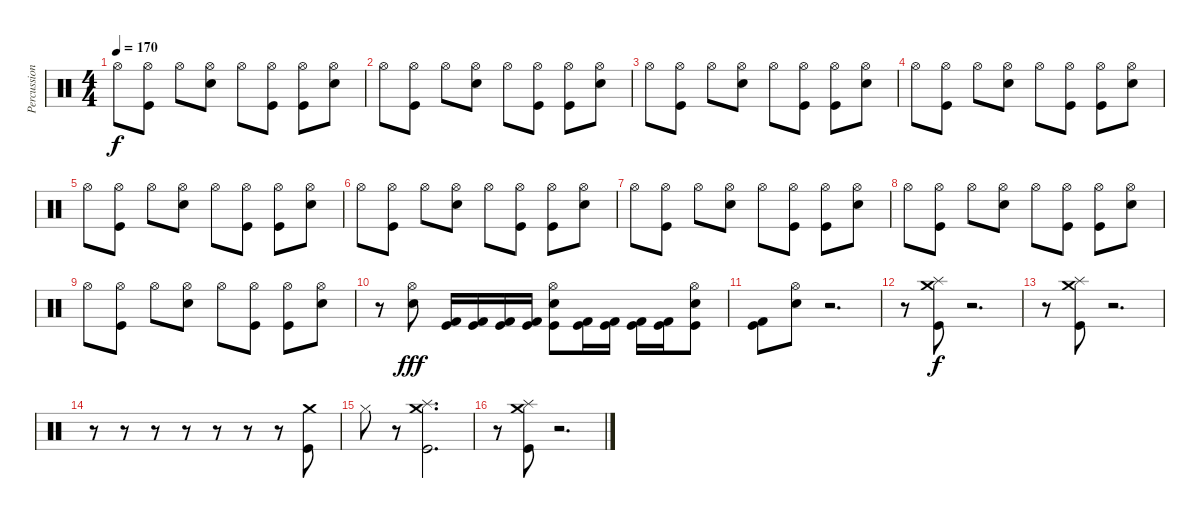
\track ("Percussion" "Percussion") {instrument percussion}
\staff {score}
\articulation defaults
\ts (4 4)
\tempo 170
\clef neutral
\ks c "Hi-Hat (open)".8{dy f}
("Hi-Hat (open)" "Kick (hit)").8 "Hi-Hat (open)".8 ("Hi-Hat (open)" "Electric Snare (hit)").8 "Hi-Hat (open)".8 ("Hi-Hat (open)" "Kick (hit)").8 ("Hi-Hat (open)" "Kick (hit)").8 ("Hi-Hat (open)" "Electric Snare (hit)").8 |
"Hi-Hat (open)".8 ("Hi-Hat (open)" "Kick (hit)").8 "Hi-Hat (open)".8 ("Hi-Hat (open)" "Electric Snare (hit)").8 "Hi-Hat (open)".8 ("Hi-Hat (open)" "Kick (hit)").8 ("Hi-Hat (open)" "Kick (hit)").8 ("Hi-Hat (open)" "Electric Snare (hit)").8 |
"Hi-Hat (open)".8 ("Hi-Hat (open)" "Kick (hit)").8 "Hi-Hat (open)".8 ("Hi-Hat (open)" "Electric Snare (hit)").8 "Hi-Hat (open)".8 ("Hi-Hat (open)" "Kick (hit)").8 ("Hi-Hat (open)" "Kick (hit)").8 ("Hi-Hat (open)" "Electric Snare (hit)").8 |
"Hi-Hat (open)".8 ("Hi-Hat (open)" "Kick (hit)").8 "Hi-Hat (open)".8 ("Hi-Hat (open)" "Electric Snare (hit)").8 "Hi-Hat (open)".8 ("Hi-Hat (open)" "Kick (hit)").8 ("Hi-Hat (open)" "Kick (hit)").8 ("Hi-Hat (open)" "Electric Snare (hit)").8 |
"Hi-Hat (open)".8 ("Hi-Hat (open)" "Kick (hit)").8 "Hi-Hat (open)".8 ("Hi-Hat (open)" "Electric Snare (hit)").8 "Hi-Hat (open)".8 ("Hi-Hat (open)" "Kick (hit)").8 ("Hi-Hat (open)" "Kick (hit)").8 ("Hi-Hat (open)" "Electric Snare (hit)").8 |
"Hi-Hat (open)".8 ("Hi-Hat (open)" "Kick (hit)").8 "Hi-Hat (open)".8 ("Hi-Hat (open)" "Electric Snare (hit)").8 "Hi-Hat (open)".8 ("Hi-Hat (open)" "Kick (hit)").8 ("Hi-Hat (open)" "Kick (hit)").8 ("Hi-Hat (open)" "Electric Snare (hit)").8 |
"Hi-Hat (open)".8 ("Hi-Hat (open)" "Kick (hit)").8 "Hi-Hat (open)".8 ("Hi-Hat (open)" "Electric Snare (hit)").8 "Hi-Hat (open)".8 ("Hi-Hat (open)" "Kick (hit)").8 ("Hi-Hat (open)" "Kick (hit)").8 ("Hi-Hat (open)" "Electric Snare (hit)").8 |
"Hi-Hat (open)".8 ("Hi-Hat (open)" "Kick (hit)").8 "Hi-Hat (open)".8 ("Hi-Hat (open)" "Electric Snare (hit)").8 "Hi-Hat (open)".8 ("Hi-Hat (open)" "Kick (hit)").8 ("Hi-Hat (open)" "Kick (hit)").8 ("Hi-Hat (open)" "Electric Snare (hit)").8 |
"Hi-Hat (open)".8 ("Hi-Hat (open)" "Kick (hit)").8 "Hi-Hat (open)".8 ("Hi-Hat (open)" "Electric Snare (hit)").8 "Hi-Hat (open)".8 ("Hi-Hat (open)" "Kick (hit)").8 ("Hi-Hat (open)" "Kick (hit)").8 ("Hi-Hat (open)" "Electric Snare (hit)").8 |
r.8 ("Hi-Hat (open)" "Electric Snare (hit)").8{dy fff} ("Kick (hit) 2" "Kick (hit)").16 ("Kick (hit) 2" "Kick (hit)").16 ("Kick (hit) 2" "Kick (hit)").16 ("Kick (hit) 2" "Kick (hit)").16 ("Hi-Hat (open)" "Electric Snare (hit)" "Kick (hit)").8 ("Kick (hit) 2" "Kick (hit)").16 ("Kick (hit) 2" "Kick (hit)").16 ("Kick (hit) 2" "Kick (hit)").16 ("Kick (hit) 2" "Kick (hit)").16 ("Hi-Hat (open)" "Electric Snare (hit)" "Kick (hit)").8 |
("Kick (hit) 2" "Kick (hit)").8 ("Hi-Hat (open)" "Electric Snare (hit)").8 r.2{d} |
r.8 ("Splash (hit)" "Crash medium (hit)" "Kick (hit)").8{dy f} r.2{d} |
r.8 ("Splash (hit)" "Crash medium (hit)" "Kick (hit)").8 r.2{d} |
r.8 r.8 r.8 r.8 r.8 r.8 r.8 ("Crash medium (hit)" "Kick (hit)").8 |
"Hi-Hat (closed)".8 r.8 ("Crash medium (hit)" "Splash (hit)" "Kick (hit)").2{d} |
r.8 ("Crash medium (hit)" "Splash (hit)" "Kick (hit)").8 r.2{d}
